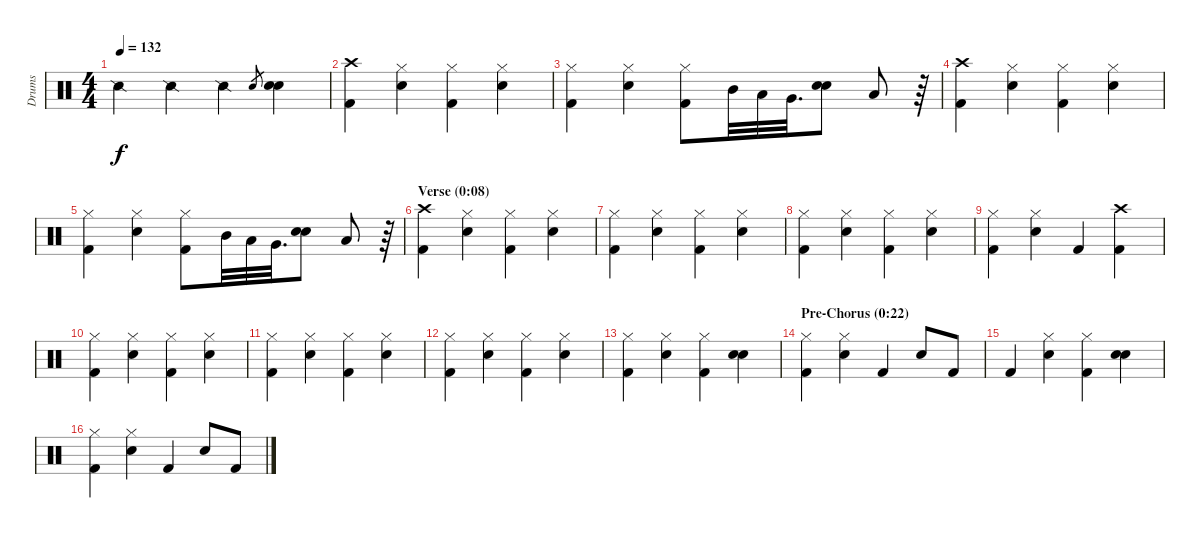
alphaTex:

\track ("Drums" "Drums") {instrument percussion}
\staff {score}
\articulation defaults
\ts (4 4)
\tempo 132
\clef neutral
\ks aminor "Snare (side stick) 2".4{dy f} "Snare (side stick) 2".4 "Snare (side stick) 2".4 "Electric Snare (hit)".8{gr}
("Electric Snare (hit)" "Electric Snare (hit)").4 |
("Kick (hit) 2" "Crash high (hit)").4 ("Electric Snare (hit)" "Hi-Hat (closed)").4 ("Kick (hit) 2" "Hi-Hat (closed)").4 ("Electric Snare (hit)" "Hi-Hat (closed)").4 |
("Kick (hit) 2" "Hi-Hat (closed)").4 ("Electric Snare (hit)" "Hi-Hat (closed)").4 ("Kick (hit) 2" "Hi-Hat (closed)").8 "Mid Tom (hit)".32 "Low Tom (hit)".32 "Very Low Tom (hit)".32{d} ("Electric Snare (hit)" "Electric Snare (hit)").8 "Low Tom (hit)".8 r.64 |
("Kick (hit) 2" "Crash high (hit)").4 ("Electric Snare (hit)" "Hi-Hat (closed)").4 ("Kick (hit) 2" "Hi-Hat (closed)").4 ("Electric Snare (hit)" "Hi-Hat (closed)").4 |
("Kick (hit) 2" "Hi-Hat (closed)").4 ("Electric Snare (hit)" "Hi-Hat (closed)").4 ("Kick (hit) 2" "Hi-Hat (closed)").8 "Mid Tom (hit)".32 "Low Tom (hit)".32 "Very Low Tom (hit)".32{d} ("Electric Snare (hit)" "Electric Snare (hit)").8 "Low Tom (hit)".8 r.64 |
\section ("" "Verse (0:08)")
("Kick (hit) 2" "Crash high (hit)").4 ("Electric Snare (hit)" "Hi-Hat (closed)").4 ("Kick (hit) 2" "Hi-Hat (closed)").4 ("Electric Snare (hit)" "Hi-Hat (closed)").4 |
("Kick (hit) 2" "Hi-Hat (closed)").4 ("Electric Snare (hit)" "Hi-Hat (closed)").4 ("Kick (hit) 2" "Hi-Hat (closed)").4 ("Electric Snare (hit)" "Hi-Hat (closed)").4 |
("Kick (hit) 2" "Hi-Hat (closed)").4 ("Electric Snare (hit)" "Hi-Hat (closed)").4 ("Kick (hit) 2" "Hi-Hat (closed)").4 ("Electric Snare (hit)" "Hi-Hat (closed)").4 |
("Kick (hit) 2" "Hi-Hat (closed)").4 ("Electric Snare (hit)" "Hi-Hat (closed)").4 "Kick (hit) 2".4 ("Kick (hit) 2" "Crash high (hit)").4 |
("Kick (hit) 2" "Hi-Hat (closed)").4 ("Electric Snare (hit)" "Hi-Hat (closed)").4 ("Kick (hit) 2" "Hi-Hat (closed)").4 ("Electric Snare (hit)" "Hi-Hat (closed)").4 |
("Kick (hit) 2" "Hi-Hat (closed)").4 ("Electric Snare (hit)" "Hi-Hat (closed)").4 ("Kick (hit) 2" "Hi-Hat (closed)").4 ("Electric Snare (hit)" "Hi-Hat (closed)").4 |
("Kick (hit) 2" "Hi-Hat (closed)").4 ("Electric Snare (hit)" "Hi-Hat (closed)").4 ("Kick (hit) 2" "Hi-Hat (closed)").4 ("Electric Snare (hit)" "Hi-Hat (closed)").4 |
("Kick (hit) 2" "Hi-Hat (closed)").4 ("Electric Snare (hit)" "Hi-Hat (closed)").4 ("Kick (hit) 2" "Hi-Hat (closed)").4 ("Electric Snare (hit)" "Electric Snare (hit)").4 |
\section ("" "Pre-Chorus (0:22)")
("Kick (hit) 2" "Hi-Hat (closed)").4 ("Electric Snare (hit)" "Hi-Hat (closed)").4 "Kick (hit) 2".4 "Electric Snare (hit)".8 "Kick (hit) 2".8 |
"Kick (hit) 2".4 ("Electric Snare (hit)" "Hi-Hat (closed)").4 ("Kick (hit) 2" "Hi-Hat (closed)").4 ("Electric Snare (hit)" "Electric Snare (hit)").4 |
("Kick (hit) 2" "Hi-Hat (closed)").4 ("Electric Snare (hit)" "Hi-Hat (closed)").4 "Kick (hit) 2".4 "Electric Snare (hit)".8 "Kick (hit) 2".8
